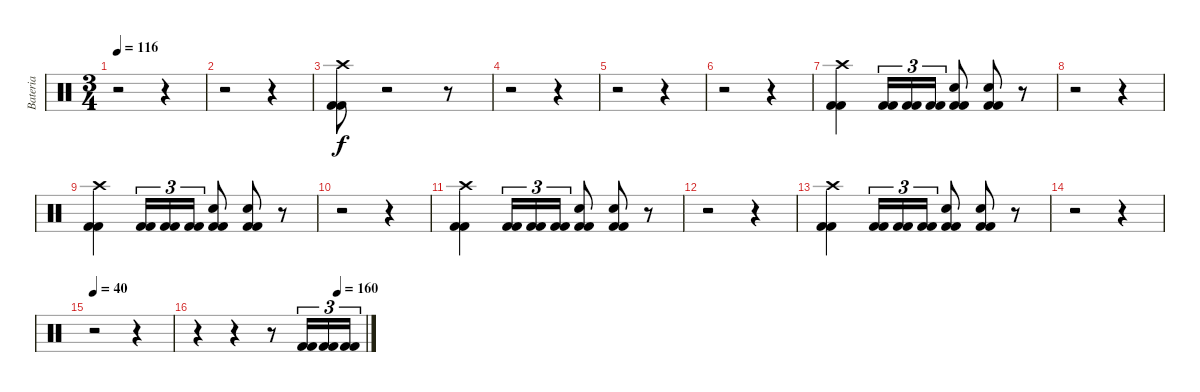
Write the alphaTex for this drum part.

\track ("Bateria" "Bateria") {instrument percussion}
\staff {score}
\articulation defaults
\ts (3 4)
\tempo 116
\clef neutral
\ks c
r.2{dy f} r.4 |
r.2 r.4 |
("Kick (hit) 2" "Kick (hit) 2" "Crash high (hit)").8 r.2 r.8 |
r.2 r.4 |
r.2 r.4 |
r.2 r.4 |
("Kick (hit) 2" "Kick (hit) 2" "Crash high (hit)").4 ("Kick (hit) 2" "Kick (hit) 2").16{tu (3 2)} ("Kick (hit) 2" "Kick (hit) 2").16{tu (3 2)} ("Kick (hit) 2" "Kick (hit) 2").16{tu (3 2)} ("Kick (hit) 2" "Kick (hit) 2" "Snare (hit) 2").8 ("Kick (hit) 2" "Kick (hit) 2" "Snare (hit) 2").8 r.8 |
r.2 r.4 |
("Kick (hit) 2" "Kick (hit) 2" "Crash high (hit)").4 ("Kick (hit) 2" "Kick (hit) 2").16{tu (3 2)} ("Kick (hit) 2" "Kick (hit) 2").16{tu (3 2)} ("Kick (hit) 2" "Kick (hit) 2").16{tu (3 2)} ("Kick (hit) 2" "Kick (hit) 2" "Snare (hit) 2").8 ("Kick (hit) 2" "Kick (hit) 2" "Snare (hit) 2").8 r.8 |
r.2 r.4 |
("Kick (hit) 2" "Kick (hit) 2" "Crash high (hit)").4 ("Kick (hit) 2" "Kick (hit) 2").16{tu (3 2)} ("Kick (hit) 2" "Kick (hit) 2").16{tu (3 2)} ("Kick (hit) 2" "Kick (hit) 2").16{tu (3 2)} ("Kick (hit) 2" "Kick (hit) 2" "Snare (hit) 2").8 ("Kick (hit) 2" "Kick (hit) 2" "Snare (hit) 2").8 r.8 |
r.2 r.4 |
("Kick (hit) 2" "Kick (hit) 2" "Crash high (hit)").4 ("Kick (hit) 2" "Kick (hit) 2").16{tu (3 2)} ("Kick (hit) 2" "Kick (hit) 2").16{tu (3 2)} ("Kick (hit) 2" "Kick (hit) 2").16{tu (3 2)} ("Kick (hit) 2" "Kick (hit) 2" "Snare (hit) 2").8 ("Kick (hit) 2" "Kick (hit) 2" "Snare (hit) 2").8 r.8 |
r.2 r.4 |
\tempo 40
r.2 r.4 |
\tempo (160 0.8333333333333334)
r.4 r.4 r.8 ("Kick (hit) 2" "Kick (hit) 2").16{tu (3 2)} ("Kick (hit) 2" "Kick (hit) 2").16{tu (3 2)} ("Kick (hit) 2" "Kick (hit) 2").16{tu (3 2)}
